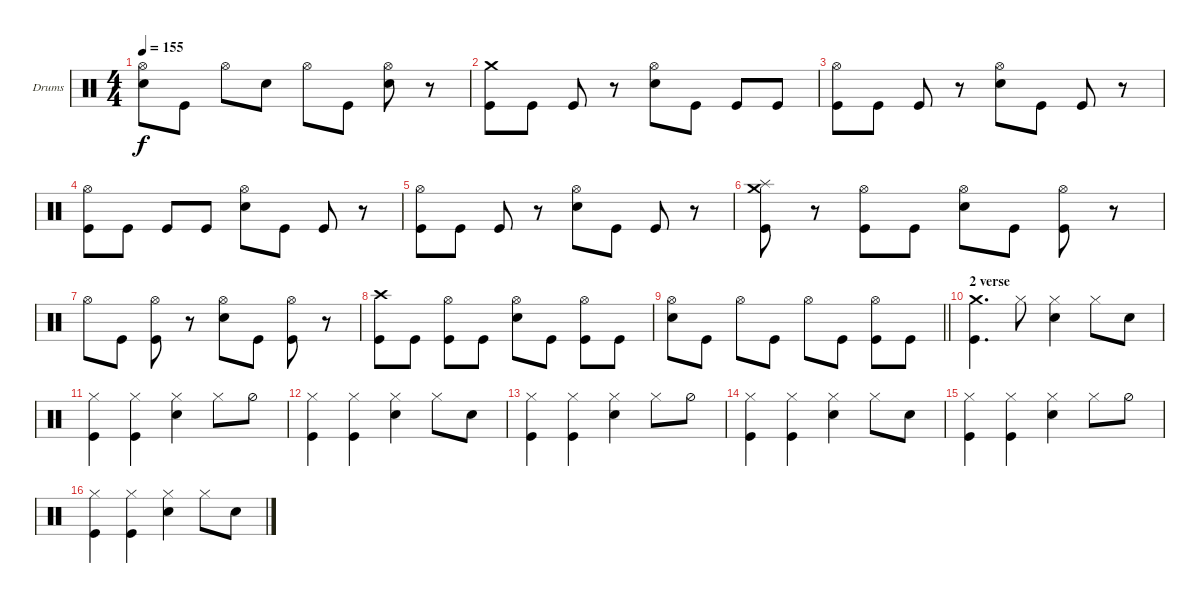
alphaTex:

\defaultSystemsLayout 4
\bracketExtendMode groupsimilarinstruments
\firstSystemTrackNameOrientation horizontal
\otherSystemsTrackNameOrientation horizontal
\track ("Drumkit" "Drums") {instrument percussion}
\staff {score}
\articulation defaults
\ts (4 4)
\tempo 155
\clef neutral
\ks c
("Hi-Hat (open)" "Snare (hit) 2").8{dy f} "Kick (hit)".8 "Hi-Hat (open)".8 "Snare (hit) 2".8 "Hi-Hat (open)".8 "Kick (hit)".8 ("Hi-Hat (open)" "Snare (hit) 2").8 r.8 |
("Crash medium (hit)" "Kick (hit)").8 "Kick (hit)".8 "Kick (hit)".8 r.8 ("Snare (hit) 2" "Hi-Hat (open)").8 "Kick (hit)".8 "Kick (hit)".8 "Kick (hit)".8 |
("Kick (hit)" "Hi-Hat (open)").8 "Kick (hit)".8 "Kick (hit)".8 r.8 ("Snare (hit) 2" "Hi-Hat (open)").8 "Kick (hit)".8 "Kick (hit)".8 r.8 |
("Kick (hit)" "Hi-Hat (open)").8 "Kick (hit)".8 "Kick (hit)".8 "Kick (hit)".8 ("Snare (hit) 2" "Hi-Hat (open)").8 "Kick (hit)".8 "Kick (hit)".8 r.8 |
("Kick (hit)" "Hi-Hat (open)").8 "Kick (hit)".8 "Kick (hit)".8 r.8 ("Snare (hit) 2" "Hi-Hat (open)").8 "Kick (hit)".8 "Kick (hit)".8 r.8 |
("Splash (hit)" "Crash medium (hit)" "Kick (hit)").8 r.8 ("Hi-Hat (open)" "Kick (hit)").8 "Kick (hit)".8 ("Hi-Hat (open)" "Snare (hit) 2").8 "Kick (hit)".8 ("Hi-Hat (open)" "Kick (hit)").8 r.8 |
"Hi-Hat (open)".8 "Kick (hit)".8 ("Hi-Hat (open)" "Kick (hit)").8 r.8 ("Hi-Hat (open)" "Snare (hit) 2").8 "Kick (hit)".8 ("Hi-Hat (open)" "Kick (hit)").8 r.8 |
("Crash high (hit)" "Kick (hit)").8 "Kick (hit)".8 ("Hi-Hat (open)" "Kick (hit)").8 "Kick (hit)".8 ("Hi-Hat (open)" "Snare (hit) 2").8 "Kick (hit)".8 ("Hi-Hat (open)" "Kick (hit)").8 "Kick (hit)".8 |
\barLineRight lightlight
("Hi-Hat (open)" "Snare (hit) 2").8 "Kick (hit)".8 "Hi-Hat (open)".8 "Kick (hit)".8 "Hi-Hat (open)".8 "Kick (hit)".8 ("Hi-Hat (open)" "Kick (hit)").8 "Kick (hit)".8 |
\section ("" "2 verse")
("Kick (hit)" "Crash medium (hit)").4{d} "Hi-Hat (closed)".8 ("Hi-Hat (closed)" "Snare (hit) 2").4 "Hi-Hat (closed)".8 "Snare (hit) 2".8 |
("Kick (hit)" "Hi-Hat (closed)").4 ("Kick (hit)" "Hi-Hat (closed)").4 ("Snare (hit) 2" "Hi-Hat (closed)").4 "Hi-Hat (closed)".8 "Hi-Hat (half)".8 |
("Hi-Hat (closed)" "Kick (hit)").4 ("Hi-Hat (closed)" "Kick (hit)").4 ("Hi-Hat (closed)" "Snare (hit) 2").4 "Hi-Hat (closed)".8 "Snare (hit) 2".8 |
("Hi-Hat (closed)" "Kick (hit)").4 ("Hi-Hat (closed)" "Kick (hit)").4 ("Hi-Hat (closed)" "Snare (hit) 2").4 "Hi-Hat (closed)".8 "Hi-Hat (half)".8 |
("Hi-Hat (closed)" "Kick (hit)").4 ("Hi-Hat (closed)" "Kick (hit)").4 ("Hi-Hat (closed)" "Snare (hit) 2").4 "Hi-Hat (closed)".8 "Snare (hit) 2".8 |
("Hi-Hat (closed)" "Kick (hit)").4 ("Hi-Hat (closed)" "Kick (hit)").4 ("Hi-Hat (closed)" "Snare (hit) 2").4 "Hi-Hat (closed)".8 "Hi-Hat (half)".8 |
("Hi-Hat (closed)" "Kick (hit)").4 ("Hi-Hat (closed)" "Kick (hit)").4 ("Hi-Hat (closed)" "Snare (hit) 2").4 "Hi-Hat (closed)".8 "Snare (hit) 2".8
